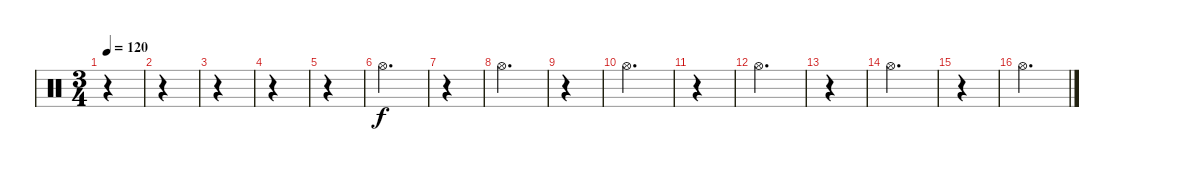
\track "" {instrument percussion}
\staff {score}
\articulation defaults
\ts (3 4)
\tempo 120
\clef neutral
\ks c
r.4{dy f} |
r.4 |
r.4 |
r.4 |
r.4 |
"Hi-Hat (open)".2{d} |
r.4 |
"Hi-Hat (open)".2{d} |
r.4 |
"Hi-Hat (open)".2{d} |
r.4 |
"Hi-Hat (open)".2{d} |
r.4 |
"Hi-Hat (open)".2{d} |
r.4 |
"Hi-Hat (open)".2{d}
